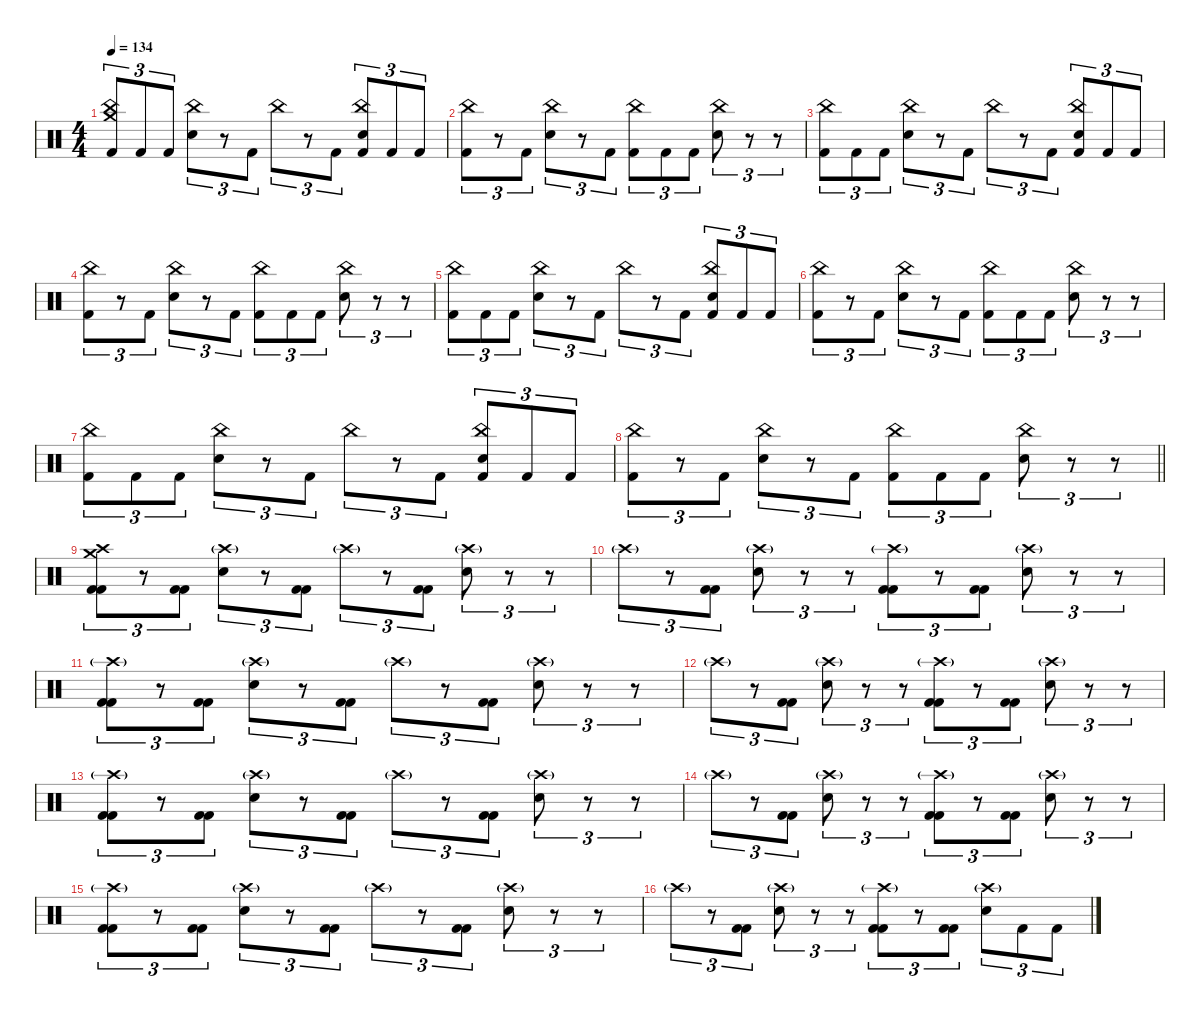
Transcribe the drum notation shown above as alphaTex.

\defaultSystemsLayout 4
\hideDynamics
\bracketExtendMode nobrackets
\singleTrackTrackNamePolicy hidden
\multiTrackTrackNamePolicy hidden
\otherSystemsTrackNameOrientation horizontal
\track ("Gene Hoglan" "drm.") {instrument percussion}
\staff {score}
\articulation defaults
\ts (4 4)
\tempo 134
\clef neutral
\ks c
("Crash medium (hit)" "China (hit)" "Kick (hit) 2").8{tu (3 2) dy f beam Up} "Kick (hit) 2".8{tu (3 2) beam Up} "Kick (hit) 2".8{tu (3 2) beam Up} ("China (hit)" "Snare (hit) 2").8{tu (3 2) dy mf beam Down} r.8{tu (3 2) beam Down} "Kick (hit) 2".8{tu (3 2) dy f beam Down} "China (hit)".8{tu (3 2) dy mf beam Down} r.8{tu (3 2) beam Down} "Kick (hit) 2".8{tu (3 2) dy f beam Down} ("China (hit)" "Snare (hit) 2" "Kick (hit) 2").8{tu (3 2) dy mf beam Up} "Kick (hit) 2".8{tu (3 2) dy f beam Up} "Kick (hit) 2".8{tu (3 2) beam Up} |
("China (hit)" "Kick (hit) 2").8{tu (3 2) dy mf beam Down} r.8{tu (3 2) beam Down} "Kick (hit) 2".8{tu (3 2) dy f beam Down} ("China (hit)" "Snare (hit) 2").8{tu (3 2) dy mf beam Down} r.8{tu (3 2) beam Down} "Kick (hit) 2".8{tu (3 2) dy f beam Down} ("China (hit)" "Kick (hit) 2").8{tu (3 2) dy mf beam Down} "Kick (hit) 2".8{tu (3 2) dy f beam Down} "Kick (hit) 2".8{tu (3 2) beam Down} ("China (hit)" "Snare (hit) 2").8{tu (3 2) dy mf beam Down} r.8{tu (3 2) beam Down} r.8{tu (3 2) beam Down} |
("China (hit)" "Kick (hit) 2").8{tu (3 2) beam Down} "Kick (hit) 2".8{tu (3 2) dy f beam Down} "Kick (hit) 2".8{tu (3 2) beam Down} ("China (hit)" "Snare (hit) 2").8{tu (3 2) dy mf beam Down} r.8{tu (3 2) beam Down} "Kick (hit) 2".8{tu (3 2) dy f beam Down} "China (hit)".8{tu (3 2) dy mf beam Down} r.8{tu (3 2) beam Down} "Kick (hit) 2".8{tu (3 2) dy f beam Down} ("China (hit)" "Snare (hit) 2" "Kick (hit) 2").8{tu (3 2) dy mf beam Up} "Kick (hit) 2".8{tu (3 2) dy f beam Up} "Kick (hit) 2".8{tu (3 2) beam Up} |
("China (hit)" "Kick (hit) 2").8{tu (3 2) dy mf beam Down} r.8{tu (3 2) beam Down} "Kick (hit) 2".8{tu (3 2) dy f beam Down} ("China (hit)" "Snare (hit) 2").8{tu (3 2) dy mf beam Down} r.8{tu (3 2) beam Down} "Kick (hit) 2".8{tu (3 2) dy f beam Down} ("China (hit)" "Kick (hit) 2").8{tu (3 2) dy mf beam Down} "Kick (hit) 2".8{tu (3 2) dy f beam Down} "Kick (hit) 2".8{tu (3 2) beam Down} ("China (hit)" "Snare (hit) 2").8{tu (3 2) dy mf beam Down} r.8{tu (3 2) beam Down} r.8{tu (3 2) beam Down} |
("China (hit)" "Kick (hit) 2").8{tu (3 2) beam Down} "Kick (hit) 2".8{tu (3 2) dy f beam Down} "Kick (hit) 2".8{tu (3 2) beam Down} ("China (hit)" "Snare (hit) 2").8{tu (3 2) dy mf beam Down} r.8{tu (3 2) beam Down} "Kick (hit) 2".8{tu (3 2) dy f beam Down} "China (hit)".8{tu (3 2) dy mf beam Down} r.8{tu (3 2) beam Down} "Kick (hit) 2".8{tu (3 2) dy f beam Down} ("China (hit)" "Snare (hit) 2" "Kick (hit) 2").8{tu (3 2) dy mf beam Up} "Kick (hit) 2".8{tu (3 2) dy f beam Up} "Kick (hit) 2".8{tu (3 2) beam Up} |
("China (hit)" "Kick (hit) 2").8{tu (3 2) dy mf beam Down} r.8{tu (3 2) beam Down} "Kick (hit) 2".8{tu (3 2) dy f beam Down} ("China (hit)" "Snare (hit) 2").8{tu (3 2) dy mf beam Down} r.8{tu (3 2) beam Down} "Kick (hit) 2".8{tu (3 2) dy f beam Down} ("China (hit)" "Kick (hit) 2").8{tu (3 2) dy mf beam Down} "Kick (hit) 2".8{tu (3 2) dy f beam Down} "Kick (hit) 2".8{tu (3 2) beam Down} ("China (hit)" "Snare (hit) 2").8{tu (3 2) dy mf beam Down} r.8{tu (3 2) beam Down} r.8{tu (3 2) beam Down} |
("China (hit)" "Kick (hit) 2").8{tu (3 2) beam Down} "Kick (hit) 2".8{tu (3 2) dy f beam Down} "Kick (hit) 2".8{tu (3 2) beam Down} ("China (hit)" "Snare (hit) 2").8{tu (3 2) dy mf beam Down} r.8{tu (3 2) beam Down} "Kick (hit) 2".8{tu (3 2) dy f beam Down} "China (hit)".8{tu (3 2) dy mf beam Down} r.8{tu (3 2) beam Down} "Kick (hit) 2".8{tu (3 2) dy f beam Down} ("China (hit)" "Snare (hit) 2" "Kick (hit) 2").8{tu (3 2) dy mf beam Up} "Kick (hit) 2".8{tu (3 2) dy f beam Up} "Kick (hit) 2".8{tu (3 2) beam Up} |
\barLineRight lightlight
("China (hit)" "Kick (hit) 2").8{tu (3 2) dy mf beam Down} r.8{tu (3 2) beam Down} "Kick (hit) 2".8{tu (3 2) dy f beam Down} ("China (hit)" "Snare (hit) 2").8{tu (3 2) dy mf beam Down} r.8{tu (3 2) beam Down} "Kick (hit) 2".8{tu (3 2) dy f beam Down} ("China (hit)" "Kick (hit) 2").8{tu (3 2) dy mf beam Down} "Kick (hit) 2".8{tu (3 2) dy f beam Down} "Kick (hit) 2".8{tu (3 2) beam Down} ("China (hit)" "Snare (hit) 2").8{tu (3 2) dy mf beam Down} r.8{tu (3 2) beam Down} r.8{tu (3 2) beam Down} |
("Crash high (hit)" "Crash medium (hit)" "Kick (hit) 2" "Kick (hit) 2").8{tu (3 2) dy f beam Down} r.8{tu (3 2) beam Down} ("Kick (hit) 2" "Kick (hit) 2").8{tu (3 2) beam Down} ("Crash high (hit)"{g} "Snare (hit) 2").8{tu (3 2) beam Down} r.8{tu (3 2) beam Down} ("Kick (hit) 2" "Kick (hit) 2").8{tu (3 2) beam Down} "Crash high (hit)"{g}.8{tu (3 2) dy mf beam Down} r.8{tu (3 2) beam Down} ("Kick (hit) 2" "Kick (hit) 2").8{tu (3 2) dy f beam Down} ("Crash high (hit)"{g} "Snare (hit) 2").8{tu (3 2) beam Down} r.8{tu (3 2) beam Down} r.8{tu (3 2) beam Down} |
"Crash high (hit)"{g}.8{tu (3 2) dy mf beam Down} r.8{tu (3 2) beam Down} ("Kick (hit) 2" "Kick (hit) 2").8{tu (3 2) dy f beam Down} ("Crash high (hit)"{g} "Snare (hit) 2").8{tu (3 2) beam Down} r.8{tu (3 2) beam Down} r.8{tu (3 2) beam Down} ("Crash high (hit)"{g} "Kick (hit) 2" "Kick (hit) 2").8{tu (3 2) beam Down} r.8{tu (3 2) beam Down} ("Kick (hit) 2" "Kick (hit) 2").8{tu (3 2) beam Down} ("Crash high (hit)"{g} "Snare (hit) 2").8{tu (3 2) beam Down} r.8{tu (3 2) beam Down} r.8{tu (3 2) beam Down} |
("Crash high (hit)"{g} "Kick (hit) 2" "Kick (hit) 2").8{tu (3 2) beam Down} r.8{tu (3 2) beam Down} ("Kick (hit) 2" "Kick (hit) 2").8{tu (3 2) beam Down} ("Crash high (hit)"{g} "Snare (hit) 2").8{tu (3 2) beam Down} r.8{tu (3 2) beam Down} ("Kick (hit) 2" "Kick (hit) 2").8{tu (3 2) beam Down} "Crash high (hit)"{g}.8{tu (3 2) dy mf beam Down} r.8{tu (3 2) beam Down} ("Kick (hit) 2" "Kick (hit) 2").8{tu (3 2) dy f beam Down} ("Crash high (hit)"{g} "Snare (hit) 2").8{tu (3 2) beam Down} r.8{tu (3 2) beam Down} r.8{tu (3 2) beam Down} |
"Crash high (hit)"{g}.8{tu (3 2) dy mf beam Down} r.8{tu (3 2) beam Down} ("Kick (hit) 2" "Kick (hit) 2").8{tu (3 2) dy f beam Down} ("Crash high (hit)"{g} "Snare (hit) 2").8{tu (3 2) beam Down} r.8{tu (3 2) beam Down} r.8{tu (3 2) beam Down} ("Crash high (hit)"{g} "Kick (hit) 2" "Kick (hit) 2").8{tu (3 2) beam Down} r.8{tu (3 2) beam Down} ("Kick (hit) 2" "Kick (hit) 2").8{tu (3 2) beam Down} ("Crash high (hit)"{g} "Snare (hit) 2").8{tu (3 2) beam Down} r.8{tu (3 2) beam Down} r.8{tu (3 2) beam Down} |
("Crash high (hit)"{g} "Kick (hit) 2" "Kick (hit) 2").8{tu (3 2) beam Down} r.8{tu (3 2) beam Down} ("Kick (hit) 2" "Kick (hit) 2").8{tu (3 2) beam Down} ("Crash high (hit)"{g} "Snare (hit) 2").8{tu (3 2) beam Down} r.8{tu (3 2) beam Down} ("Kick (hit) 2" "Kick (hit) 2").8{tu (3 2) beam Down} "Crash high (hit)"{g}.8{tu (3 2) dy mf beam Down} r.8{tu (3 2) beam Down} ("Kick (hit) 2" "Kick (hit) 2").8{tu (3 2) dy f beam Down} ("Crash high (hit)"{g} "Snare (hit) 2").8{tu (3 2) beam Down} r.8{tu (3 2) beam Down} r.8{tu (3 2) beam Down} |
"Crash high (hit)"{g}.8{tu (3 2) dy mf beam Down} r.8{tu (3 2) beam Down} ("Kick (hit) 2" "Kick (hit) 2").8{tu (3 2) dy f beam Down} ("Crash high (hit)"{g} "Snare (hit) 2").8{tu (3 2) beam Down} r.8{tu (3 2) beam Down} r.8{tu (3 2) beam Down} ("Crash high (hit)"{g} "Kick (hit) 2" "Kick (hit) 2").8{tu (3 2) beam Down} r.8{tu (3 2) beam Down} ("Kick (hit) 2" "Kick (hit) 2").8{tu (3 2) beam Down} ("Crash high (hit)"{g} "Snare (hit) 2").8{tu (3 2) beam Down} r.8{tu (3 2) beam Down} r.8{tu (3 2) beam Down} |
("Crash high (hit)"{g} "Kick (hit) 2" "Kick (hit) 2").8{tu (3 2) beam Down} r.8{tu (3 2) beam Down} ("Kick (hit) 2" "Kick (hit) 2").8{tu (3 2) beam Down} ("Crash high (hit)"{g} "Snare (hit) 2").8{tu (3 2) beam Down} r.8{tu (3 2) beam Down} ("Kick (hit) 2" "Kick (hit) 2").8{tu (3 2) beam Down} "Crash high (hit)"{g}.8{tu (3 2) dy mf beam Down} r.8{tu (3 2) beam Down} ("Kick (hit) 2" "Kick (hit) 2").8{tu (3 2) dy f beam Down} ("Crash high (hit)"{g} "Snare (hit) 2").8{tu (3 2) beam Down} r.8{tu (3 2) beam Down} r.8{tu (3 2) beam Down} |
"Crash high (hit)"{g}.8{tu (3 2) dy mf beam Down} r.8{tu (3 2) beam Down} ("Kick (hit) 2" "Kick (hit) 2").8{tu (3 2) dy f beam Down} ("Crash high (hit)"{g} "Snare (hit) 2").8{tu (3 2) beam Down} r.8{tu (3 2) beam Down} r.8{tu (3 2) beam Down} ("Crash high (hit)"{g} "Kick (hit) 2" "Kick (hit) 2").8{tu (3 2) beam Down} r.8{tu (3 2) beam Down} ("Kick (hit) 2" "Kick (hit) 2").8{tu (3 2) beam Down} ("Crash high (hit)"{g} "Snare (hit) 2").8{tu (3 2) beam Down} "Kick (hit) 2".8{tu (3 2) beam Down} "Kick (hit) 2".8{tu (3 2) beam Down}
